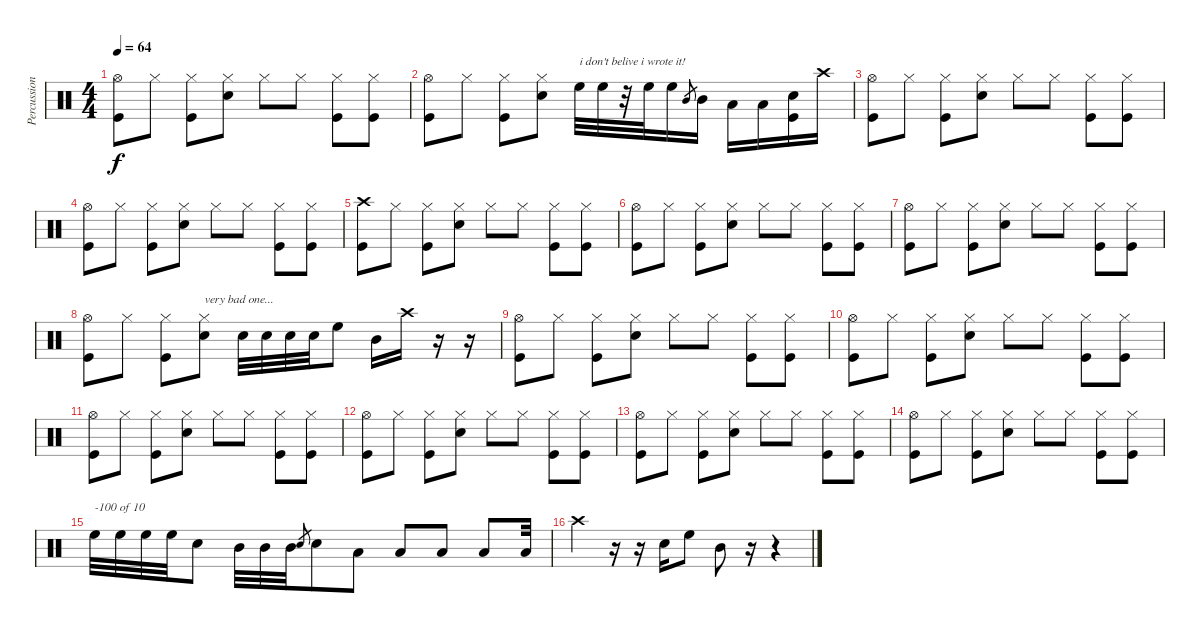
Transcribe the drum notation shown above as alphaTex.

\track ("Percussion" "Percussion") {instrument percussion}
\staff {score}
\articulation defaults
\ts (4 4)
\tempo 64
\clef neutral
\ks c
("Hi-Hat (open)" "Kick (hit)").8{dy f} "Hi-Hat (closed)".8 ("Hi-Hat (closed)" "Kick (hit)").8 ("Snare (hit) 2" "Hi-Hat (closed)").8 "Hi-Hat (closed)".8 "Hi-Hat (closed)".8 ("Hi-Hat (closed)" "Kick (hit)").8 ("Hi-Hat (closed)" "Kick (hit)").8 |
("Hi-Hat (open)" "Kick (hit)").8 "Hi-Hat (closed)".8 ("Hi-Hat (closed)" "Kick (hit)").8 ("Snare (hit) 2" "Hi-Hat (closed)").8 "High Floor Tom (hit)".32{txt "i don't belive i wrote it!"} "High Floor Tom (hit)".32 r.32 "High Floor Tom (hit)".32 "High Floor Tom (hit)".16 "Mid Tom (hit)".8{gr} "Mid Tom (hit)".16 "Low Tom (hit)".16 "Low Floor Tom (hit)".16 ("Kick (hit)" "Snare (hit) 2").16 "Crash high (hit)".16 |
("Hi-Hat (open)" "Kick (hit)").8 "Hi-Hat (closed)".8 ("Hi-Hat (closed)" "Kick (hit)").8 ("Snare (hit) 2" "Hi-Hat (closed)").8 "Hi-Hat (closed)".8 "Hi-Hat (closed)".8 ("Hi-Hat (closed)" "Kick (hit)").8 ("Hi-Hat (closed)" "Kick (hit)").8 |
("Hi-Hat (open)" "Kick (hit)").8 "Hi-Hat (closed)".8 ("Hi-Hat (closed)" "Kick (hit)").8 ("Snare (hit) 2" "Hi-Hat (closed)").8 "Hi-Hat (closed)".8 "Hi-Hat (closed)".8 ("Hi-Hat (closed)" "Kick (hit)").8 ("Hi-Hat (closed)" "Kick (hit)").8 |
("Crash high (hit)" "Kick (hit)").8 "Hi-Hat (closed)".8 ("Hi-Hat (closed)" "Kick (hit)").8 ("Snare (hit) 2" "Hi-Hat (closed)").8 "Hi-Hat (closed)".8 "Hi-Hat (closed)".8 ("Hi-Hat (closed)" "Kick (hit)").8 ("Hi-Hat (closed)" "Kick (hit)").8 |
("Hi-Hat (open)" "Kick (hit)").8 "Hi-Hat (closed)".8 ("Hi-Hat (closed)" "Kick (hit)").8 ("Snare (hit) 2" "Hi-Hat (closed)").8 "Hi-Hat (closed)".8 "Hi-Hat (closed)".8 ("Hi-Hat (closed)" "Kick (hit)").8 ("Hi-Hat (closed)" "Kick (hit)").8 |
("Hi-Hat (open)" "Kick (hit)").8 "Hi-Hat (closed)".8 ("Hi-Hat (closed)" "Kick (hit)").8 ("Snare (hit) 2" "Hi-Hat (closed)").8 "Hi-Hat (closed)".8 "Hi-Hat (closed)".8 ("Hi-Hat (closed)" "Kick (hit)").8 ("Hi-Hat (closed)" "Kick (hit)").8 |
("Hi-Hat (open)" "Kick (hit)").8 "Hi-Hat (closed)".8 ("Hi-Hat (closed)" "Kick (hit)").8 ("Snare (hit) 2" "Hi-Hat (closed)").8{txt "very bad one..."} "Snare (hit) 2".32 "Snare (hit) 2".32 "Snare (hit) 2".32 "Snare (hit) 2".32 "High Floor Tom (hit)".8 "Mid Tom (hit)".16 "Crash high (hit)".16 r.16 r.16 |
("Hi-Hat (open)" "Kick (hit)").8 "Hi-Hat (closed)".8 ("Hi-Hat (closed)" "Kick (hit)").8 ("Snare (hit) 2" "Hi-Hat (closed)").8 "Hi-Hat (closed)".8 "Hi-Hat (closed)".8 ("Hi-Hat (closed)" "Kick (hit)").8 ("Hi-Hat (closed)" "Kick (hit)").8 |
("Hi-Hat (open)" "Kick (hit)").8 "Hi-Hat (closed)".8 ("Hi-Hat (closed)" "Kick (hit)").8 ("Snare (hit) 2" "Hi-Hat (closed)").8 "Hi-Hat (closed)".8 "Hi-Hat (closed)".8 ("Hi-Hat (closed)" "Kick (hit)").8 ("Hi-Hat (closed)" "Kick (hit)").8 |
("Hi-Hat (open)" "Kick (hit)").8 "Hi-Hat (closed)".8 ("Hi-Hat (closed)" "Kick (hit)").8 ("Snare (hit) 2" "Hi-Hat (closed)").8 "Hi-Hat (closed)".8 "Hi-Hat (closed)".8 ("Hi-Hat (closed)" "Kick (hit)").8 ("Hi-Hat (closed)" "Kick (hit)").8 |
("Hi-Hat (open)" "Kick (hit)").8 "Hi-Hat (closed)".8 ("Hi-Hat (closed)" "Kick (hit)").8 ("Snare (hit) 2" "Hi-Hat (closed)").8 "Hi-Hat (closed)".8 "Hi-Hat (closed)".8 ("Hi-Hat (closed)" "Kick (hit)").8 ("Hi-Hat (closed)" "Kick (hit)").8 |
("Hi-Hat (open)" "Kick (hit)").8 "Hi-Hat (closed)".8 ("Hi-Hat (closed)" "Kick (hit)").8 ("Snare (hit) 2" "Hi-Hat (closed)").8 "Hi-Hat (closed)".8 "Hi-Hat (closed)".8 ("Hi-Hat (closed)" "Kick (hit)").8 ("Hi-Hat (closed)" "Kick (hit)").8 |
("Hi-Hat (open)" "Kick (hit)").8 "Hi-Hat (closed)".8 ("Hi-Hat (closed)" "Kick (hit)").8 ("Snare (hit) 2" "Hi-Hat (closed)").8 "Hi-Hat (closed)".8 "Hi-Hat (closed)".8 ("Hi-Hat (closed)" "Kick (hit)").8 ("Hi-Hat (closed)" "Kick (hit)").8 |
"High Floor Tom (hit)".32{txt "-100 of 10"} "High Floor Tom (hit)".32 "High Floor Tom (hit)".32 "High Floor Tom (hit)".32 "Snare (hit) 2".8 "Mid Tom (hit)".32 "Mid Tom (hit)".32 "Mid Tom (hit)".32 "Snare (hit) 2".8{gr} "Snare (hit) 2".8 "Low Tom (hit)".8 "Low Tom (hit)".8 "Low Tom (hit)".8 "Low Floor Tom (hit)".8 "Low Floor Tom (hit)".32 |
"Crash high (hit)".4 r.16 r.16 "Snare (hit) 2".16 "High Floor Tom (hit)".8 "Mid Tom (hit)".8 r.16 r.4
